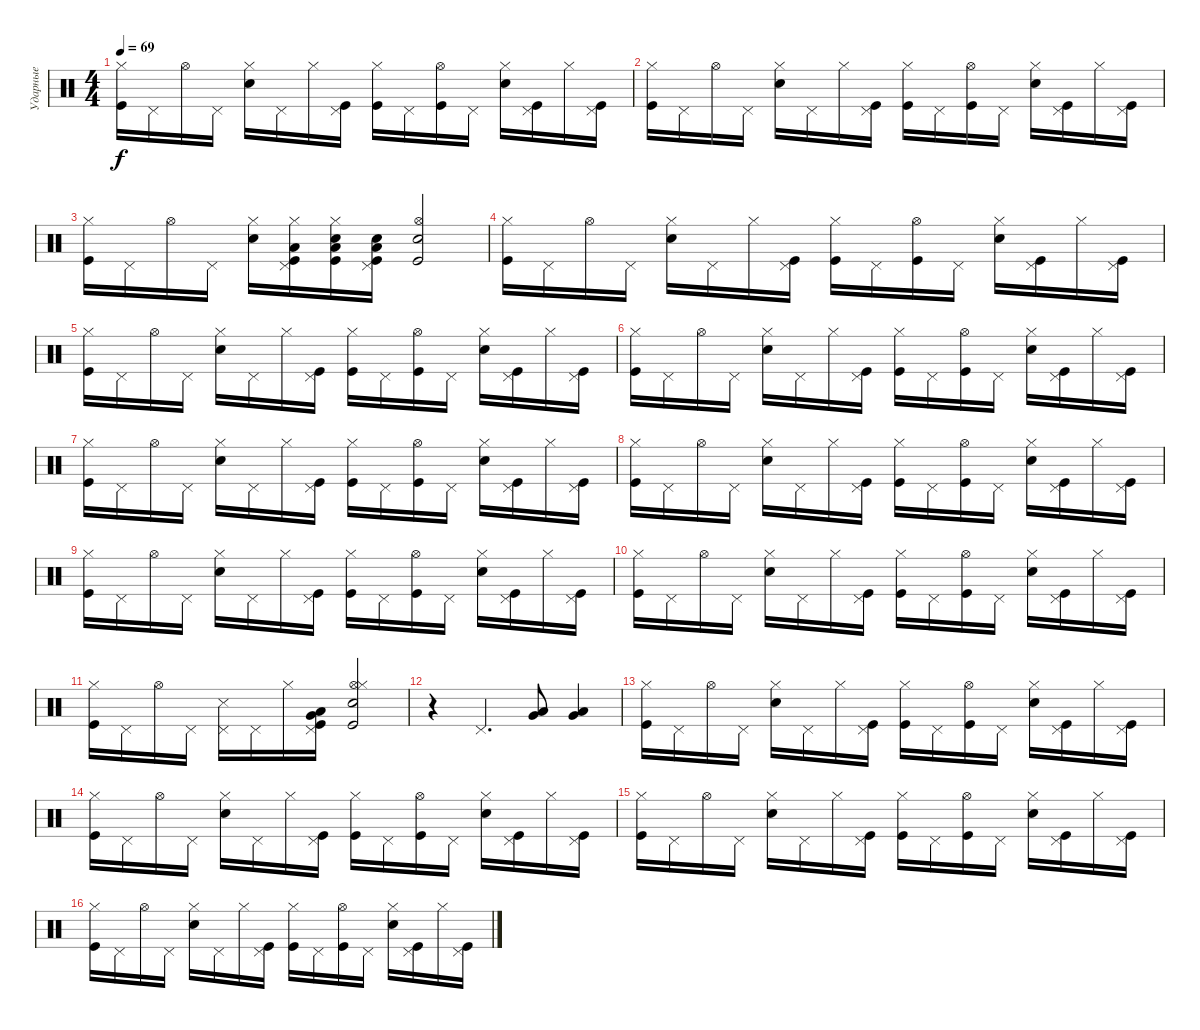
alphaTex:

\track ("Ударные" "Ударные") {instrument percussion}
\staff {score}
\articulation defaults
\ts (4 4)
\tempo 69
\clef neutral
\ks c
("Kick (hit)" "Hi-Hat (closed)").16{dy f} "Pedal Hi-Hat (hit)".16 "Hi-Hat (open)".16 "Pedal Hi-Hat (hit)".16 ("Snare (hit) 2" "Hi-Hat (closed)").16 "Pedal Hi-Hat (hit)".16 "Hi-Hat (closed)".16 ("Pedal Hi-Hat (hit)" "Kick (hit)").16 ("Kick (hit)" "Hi-Hat (closed)").16 "Pedal Hi-Hat (hit)".16 ("Kick (hit)" "Hi-Hat (open)").16 "Pedal Hi-Hat (hit)".16 ("Snare (hit) 2" "Hi-Hat (closed)").16 ("Pedal Hi-Hat (hit)" "Kick (hit)").16 "Hi-Hat (closed)".16 ("Pedal Hi-Hat (hit)" "Kick (hit)").16 |
("Kick (hit)" "Hi-Hat (closed)").16 "Pedal Hi-Hat (hit)".16 "Hi-Hat (open)".16 "Pedal Hi-Hat (hit)".16 ("Snare (hit) 2" "Hi-Hat (closed)").16 "Pedal Hi-Hat (hit)".16 "Hi-Hat (closed)".16 ("Pedal Hi-Hat (hit)" "Kick (hit)").16 ("Kick (hit)" "Hi-Hat (closed)").16 "Pedal Hi-Hat (hit)".16 ("Kick (hit)" "Hi-Hat (open)").16 "Pedal Hi-Hat (hit)".16 ("Snare (hit) 2" "Hi-Hat (closed)").16 ("Pedal Hi-Hat (hit)" "Kick (hit)").16 "Hi-Hat (closed)".16 ("Pedal Hi-Hat (hit)" "Kick (hit)").16 |
("Kick (hit)" "Hi-Hat (closed)").16 "Pedal Hi-Hat (hit)".16 "Hi-Hat (open)".16 "Pedal Hi-Hat (hit)".16 ("Hi-Hat (closed)" "Snare (hit) 2").16 ("Hi-Hat (closed)" "Kick (hit)" "Pedal Hi-Hat (hit)" "Low Floor Tom (hit)").16 ("Hi-Hat (closed)" "Snare (hit) 2" "Low Floor Tom (hit)" "Kick (hit)").16 ("Pedal Hi-Hat (hit)" "Kick (hit)" "Snare (hit) 2" "Low Floor Tom (hit)").16 ("Hi-Hat (open)" "Snare (hit) 2" "Kick (hit)").2 |
("Kick (hit)" "Hi-Hat (closed)").16 "Pedal Hi-Hat (hit)".16 "Hi-Hat (open)".16 "Pedal Hi-Hat (hit)".16 ("Snare (hit) 2" "Hi-Hat (closed)").16 "Pedal Hi-Hat (hit)".16 "Hi-Hat (closed)".16 ("Pedal Hi-Hat (hit)" "Kick (hit)").16 ("Kick (hit)" "Hi-Hat (closed)").16 "Pedal Hi-Hat (hit)".16 ("Kick (hit)" "Hi-Hat (open)").16 "Pedal Hi-Hat (hit)".16 ("Snare (hit) 2" "Hi-Hat (closed)").16 ("Pedal Hi-Hat (hit)" "Kick (hit)").16 "Hi-Hat (closed)".16 ("Pedal Hi-Hat (hit)" "Kick (hit)").16 |
("Kick (hit)" "Hi-Hat (closed)").16 "Pedal Hi-Hat (hit)".16 "Hi-Hat (open)".16 "Pedal Hi-Hat (hit)".16 ("Snare (hit) 2" "Hi-Hat (closed)").16 "Pedal Hi-Hat (hit)".16 "Hi-Hat (closed)".16 ("Pedal Hi-Hat (hit)" "Kick (hit)").16 ("Kick (hit)" "Hi-Hat (closed)").16 "Pedal Hi-Hat (hit)".16 ("Kick (hit)" "Hi-Hat (open)").16 "Pedal Hi-Hat (hit)".16 ("Snare (hit) 2" "Hi-Hat (closed)").16 ("Pedal Hi-Hat (hit)" "Kick (hit)").16 "Hi-Hat (closed)".16 ("Pedal Hi-Hat (hit)" "Kick (hit)").16 |
("Kick (hit)" "Hi-Hat (closed)").16 "Pedal Hi-Hat (hit)".16 "Hi-Hat (open)".16 "Pedal Hi-Hat (hit)".16 ("Snare (hit) 2" "Hi-Hat (closed)").16 "Pedal Hi-Hat (hit)".16 "Hi-Hat (closed)".16 ("Pedal Hi-Hat (hit)" "Kick (hit)").16 ("Kick (hit)" "Hi-Hat (closed)").16 "Pedal Hi-Hat (hit)".16 ("Kick (hit)" "Hi-Hat (open)").16 "Pedal Hi-Hat (hit)".16 ("Snare (hit) 2" "Hi-Hat (closed)").16 ("Pedal Hi-Hat (hit)" "Kick (hit)").16 "Hi-Hat (closed)".16 ("Pedal Hi-Hat (hit)" "Kick (hit)").16 |
("Kick (hit)" "Hi-Hat (closed)").16 "Pedal Hi-Hat (hit)".16 "Hi-Hat (open)".16 "Pedal Hi-Hat (hit)".16 ("Snare (hit) 2" "Hi-Hat (closed)").16 "Pedal Hi-Hat (hit)".16 "Hi-Hat (closed)".16 ("Pedal Hi-Hat (hit)" "Kick (hit)").16 ("Kick (hit)" "Hi-Hat (closed)").16 "Pedal Hi-Hat (hit)".16 ("Kick (hit)" "Hi-Hat (open)").16 "Pedal Hi-Hat (hit)".16 ("Snare (hit) 2" "Hi-Hat (closed)").16 ("Pedal Hi-Hat (hit)" "Kick (hit)").16 "Hi-Hat (closed)".16 ("Pedal Hi-Hat (hit)" "Kick (hit)").16 |
("Kick (hit)" "Hi-Hat (closed)").16 "Pedal Hi-Hat (hit)".16 "Hi-Hat (open)".16 "Pedal Hi-Hat (hit)".16 ("Snare (hit) 2" "Hi-Hat (closed)").16 "Pedal Hi-Hat (hit)".16 "Hi-Hat (closed)".16 ("Pedal Hi-Hat (hit)" "Kick (hit)").16 ("Kick (hit)" "Hi-Hat (closed)").16 "Pedal Hi-Hat (hit)".16 ("Kick (hit)" "Hi-Hat (open)").16 "Pedal Hi-Hat (hit)".16 ("Snare (hit) 2" "Hi-Hat (closed)").16 ("Pedal Hi-Hat (hit)" "Kick (hit)").16 "Hi-Hat (closed)".16 ("Pedal Hi-Hat (hit)" "Kick (hit)").16 |
("Kick (hit)" "Hi-Hat (closed)").16 "Pedal Hi-Hat (hit)".16 "Hi-Hat (open)".16 "Pedal Hi-Hat (hit)".16 ("Snare (hit) 2" "Hi-Hat (closed)").16 "Pedal Hi-Hat (hit)".16 "Hi-Hat (closed)".16 ("Pedal Hi-Hat (hit)" "Kick (hit)").16 ("Kick (hit)" "Hi-Hat (closed)").16 "Pedal Hi-Hat (hit)".16 ("Kick (hit)" "Hi-Hat (open)").16 "Pedal Hi-Hat (hit)".16 ("Snare (hit) 2" "Hi-Hat (closed)").16 ("Pedal Hi-Hat (hit)" "Kick (hit)").16 "Hi-Hat (closed)".16 ("Pedal Hi-Hat (hit)" "Kick (hit)").16 |
("Kick (hit)" "Hi-Hat (closed)").16 "Pedal Hi-Hat (hit)".16 "Hi-Hat (open)".16 "Pedal Hi-Hat (hit)".16 ("Snare (hit) 2" "Hi-Hat (closed)").16 "Pedal Hi-Hat (hit)".16 "Hi-Hat (closed)".16 ("Pedal Hi-Hat (hit)" "Kick (hit)").16 ("Kick (hit)" "Hi-Hat (closed)").16 "Pedal Hi-Hat (hit)".16 ("Kick (hit)" "Hi-Hat (open)").16 "Pedal Hi-Hat (hit)".16 ("Snare (hit) 2" "Hi-Hat (closed)").16 ("Pedal Hi-Hat (hit)" "Kick (hit)").16 "Hi-Hat (closed)".16 ("Pedal Hi-Hat (hit)" "Kick (hit)").16 |
("Kick (hit)" "Hi-Hat (closed)").16 "Pedal Hi-Hat (hit)".16 "Hi-Hat (open)".16 "Pedal Hi-Hat (hit)".16 ("Snare (side stick) 3" "Pedal Hi-Hat (hit)").16 "Pedal Hi-Hat (hit)".16 "Hi-Hat (closed)".16 ("Pedal Hi-Hat (hit)" "Kick (hit)" "Very Low Tom (hit)" "Low Tom (hit)").16 ("Hi-Hat (open)" "Hi-Hat (closed)" "Snare (hit) 2" "Kick (hit)").2 |
r.4 "Pedal Hi-Hat (hit)".4{d} ("Low Floor Tom (hit)" "Very Low Tom (hit)").8 ("Low Floor Tom (hit)" "Very Low Tom (hit)").4 |
("Kick (hit)" "Hi-Hat (closed)").16 "Pedal Hi-Hat (hit)".16 "Hi-Hat (open)".16 "Pedal Hi-Hat (hit)".16 ("Snare (hit) 2" "Hi-Hat (closed)").16 "Pedal Hi-Hat (hit)".16 "Hi-Hat (closed)".16 ("Pedal Hi-Hat (hit)" "Kick (hit)").16 ("Kick (hit)" "Hi-Hat (closed)").16 "Pedal Hi-Hat (hit)".16 ("Kick (hit)" "Hi-Hat (open)").16 "Pedal Hi-Hat (hit)".16 ("Snare (hit) 2" "Hi-Hat (closed)").16 ("Pedal Hi-Hat (hit)" "Kick (hit)").16 "Hi-Hat (closed)".16 ("Pedal Hi-Hat (hit)" "Kick (hit)").16 |
("Kick (hit)" "Hi-Hat (closed)").16 "Pedal Hi-Hat (hit)".16 "Hi-Hat (open)".16 "Pedal Hi-Hat (hit)".16 ("Snare (hit) 2" "Hi-Hat (closed)").16 "Pedal Hi-Hat (hit)".16 "Hi-Hat (closed)".16 ("Pedal Hi-Hat (hit)" "Kick (hit)").16 ("Kick (hit)" "Hi-Hat (closed)").16 "Pedal Hi-Hat (hit)".16 ("Kick (hit)" "Hi-Hat (open)").16 "Pedal Hi-Hat (hit)".16 ("Snare (hit) 2" "Hi-Hat (closed)").16 ("Pedal Hi-Hat (hit)" "Kick (hit)").16 "Hi-Hat (closed)".16 ("Pedal Hi-Hat (hit)" "Kick (hit)").16 |
("Kick (hit)" "Hi-Hat (closed)").16 "Pedal Hi-Hat (hit)".16 "Hi-Hat (open)".16 "Pedal Hi-Hat (hit)".16 ("Snare (hit) 2" "Hi-Hat (closed)").16 "Pedal Hi-Hat (hit)".16 "Hi-Hat (closed)".16 ("Pedal Hi-Hat (hit)" "Kick (hit)").16 ("Kick (hit)" "Hi-Hat (closed)").16 "Pedal Hi-Hat (hit)".16 ("Kick (hit)" "Hi-Hat (open)").16 "Pedal Hi-Hat (hit)".16 ("Snare (hit) 2" "Hi-Hat (closed)").16 ("Pedal Hi-Hat (hit)" "Kick (hit)").16 "Hi-Hat (closed)".16 ("Pedal Hi-Hat (hit)" "Kick (hit)").16 |
("Kick (hit)" "Hi-Hat (closed)").16 "Pedal Hi-Hat (hit)".16 "Hi-Hat (open)".16 "Pedal Hi-Hat (hit)".16 ("Snare (hit) 2" "Hi-Hat (closed)").16 "Pedal Hi-Hat (hit)".16 "Hi-Hat (closed)".16 ("Pedal Hi-Hat (hit)" "Kick (hit)").16 ("Kick (hit)" "Hi-Hat (closed)").16 "Pedal Hi-Hat (hit)".16 ("Kick (hit)" "Hi-Hat (open)").16 "Pedal Hi-Hat (hit)".16 ("Snare (hit) 2" "Hi-Hat (closed)").16 ("Pedal Hi-Hat (hit)" "Kick (hit)").16 "Hi-Hat (closed)".16 ("Pedal Hi-Hat (hit)" "Kick (hit)").16
